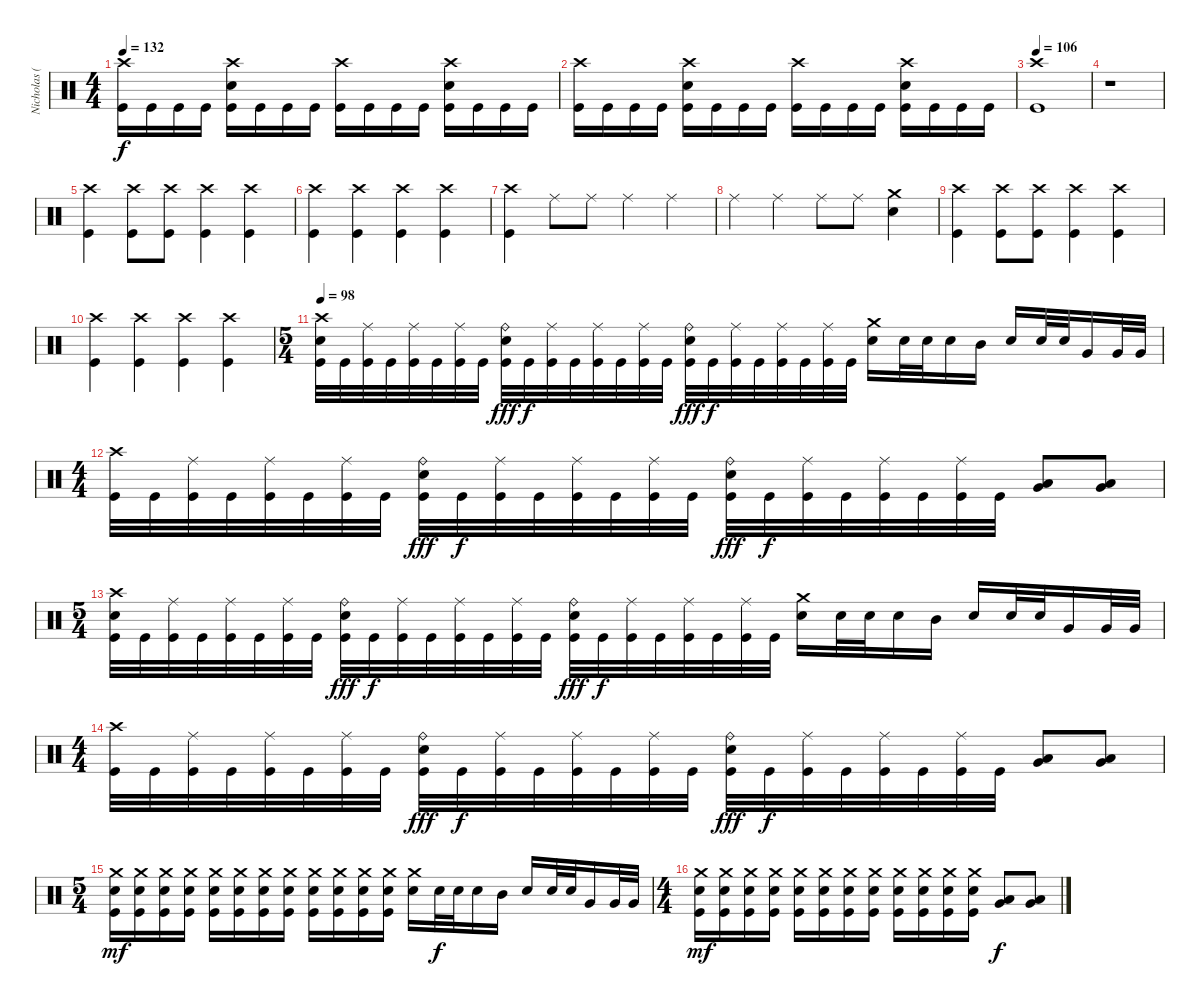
\track ("Nicholas (Drums)" "Nicholas (") {instrument percussion}
\staff {score}
\articulation defaults
\ts (4 4)
\tempo 132
\clef neutral
\ks c
("Crash high (hit)" "Kick (hit)").16{dy f} "Kick (hit)".16 "Kick (hit)".16 "Kick (hit)".16 ("Crash high (hit)" "Electric Snare (hit)" "Kick (hit)").16 "Kick (hit)".16 "Kick (hit)".16 "Kick (hit)".16 ("Crash high (hit)" "Kick (hit)").16 "Kick (hit)".16 "Kick (hit)".16 "Kick (hit)".16 ("Crash high (hit)" "Electric Snare (hit)" "Kick (hit)").16 "Kick (hit)".16 "Kick (hit)".16 "Kick (hit)".16 |
("Crash high (hit)" "Kick (hit)").16 "Kick (hit)".16 "Kick (hit)".16 "Kick (hit)".16 ("Crash high (hit)" "Electric Snare (hit)" "Kick (hit)").16 "Kick (hit)".16 "Kick (hit)".16 "Kick (hit)".16 ("Crash high (hit)" "Kick (hit)").16 "Kick (hit)".16 "Kick (hit)".16 "Kick (hit)".16 ("Crash high (hit)" "Electric Snare (hit)" "Kick (hit)").16 "Kick (hit)".16 "Kick (hit)".16 "Kick (hit)".16 |
\tempo 106
("Crash high (hit)" "Kick (hit)").1 |
r.1 |
("Crash high (hit)" "Kick (hit)").4 ("Crash high (hit)" "Kick (hit)").8 ("Crash high (hit)" "Kick (hit)").8 ("Crash high (hit)" "Kick (hit)").4 ("Crash high (hit)" "Kick (hit)").4 |
("Crash high (hit)" "Kick (hit)").4 ("Crash high (hit)" "Kick (hit)").4 ("Crash high (hit)" "Kick (hit)").4 ("Crash high (hit)" "Kick (hit)").4 |
("Crash high (hit)" "Kick (hit)").4 "Ride (middle)".8 "Ride (middle)".8 "Ride (middle)".4 "Ride (middle)".4 |
"Ride (middle)".4 "Ride (middle)".4 "Ride (middle)".8 "Ride (middle)".8 ("Crash medium (hit)" "Electric Snare (hit)").4 |
("Crash high (hit)" "Kick (hit)").4 ("Crash high (hit)" "Kick (hit)").8 ("Crash high (hit)" "Kick (hit)").8 ("Crash high (hit)" "Kick (hit)").4 ("Crash high (hit)" "Kick (hit)").4 |
("Crash high (hit)" "Kick (hit)").4 ("Crash high (hit)" "Kick (hit)").4 ("Crash high (hit)" "Kick (hit)").4 ("Crash high (hit)" "Kick (hit)").4 |
\ts (5 4)
\tempo 98
("Crash high (hit)" "Electric Snare (hit)" "Kick (hit)").32 "Kick (hit)".32 ("Ride (middle)" "Kick (hit)").32 "Kick (hit)".32 ("Ride (middle)" "Kick (hit)").32 "Kick (hit)".32 ("Ride (middle)" "Kick (hit)").32 "Kick (hit)".32 ("Ride (bell)" "Electric Snare (hit)" "Kick (hit)").32{dy fff} "Kick (hit)".32{dy f} ("Ride (middle)" "Kick (hit)").32 "Kick (hit)".32 ("Ride (middle)" "Kick (hit)").32 "Kick (hit)".32 ("Ride (middle)" "Kick (hit)").32 "Kick (hit)".32 ("Ride (bell)" "Electric Snare (hit)" "Kick (hit)").32{dy fff} "Kick (hit)".32{dy f} ("Ride (middle)" "Kick (hit)").32 "Kick (hit)".32 ("Ride (middle)" "Kick (hit)").32 "Kick (hit)".32 ("Ride (middle)" "Kick (hit)").32 "Kick (hit)".32 ("Crash medium (hit)" "Electric Snare (hit)").16 "Electric Snare (hit)".32 "Electric Snare (hit)".32 "Electric Snare (hit)".16 "Mid Tom (hit)".16 "Electric Snare (hit)".16 "Electric Snare (hit)".32 "Electric Snare (hit)".32 "Very Low Tom (hit)".16 "Very Low Tom (hit)".32 "Very Low Tom (hit)".32 |
\ts (4 4)
("Crash high (hit)" "Kick (hit)").32 "Kick (hit)".32 ("Ride (middle)" "Kick (hit)").32 "Kick (hit)".32 ("Ride (middle)" "Kick (hit)").32 "Kick (hit)".32 ("Ride (middle)" "Kick (hit)").32 "Kick (hit)".32 ("Ride (bell)" "Electric Snare (hit)" "Kick (hit)").32{dy fff} "Kick (hit)".32{dy f} ("Ride (middle)" "Kick (hit)").32 "Kick (hit)".32 ("Ride (middle)" "Kick (hit)").32 "Kick (hit)".32 ("Ride (middle)" "Kick (hit)").32 "Kick (hit)".32 ("Ride (bell)" "Electric Snare (hit)" "Kick (hit)").32{dy fff} "Kick (hit)".32{dy f} ("Ride (middle)" "Kick (hit)").32 "Kick (hit)".32 ("Ride (middle)" "Kick (hit)").32 "Kick (hit)".32 ("Ride (middle)" "Kick (hit)").32 "Kick (hit)".32 ("Low Tom (hit)" "Very Low Tom (hit)").8{bu 60} ("Low Tom (hit)" "Very Low Tom (hit)").8{bu 60} |
\ts (5 4)
("Crash high (hit)" "Electric Snare (hit)" "Kick (hit)").32 "Kick (hit)".32 ("Ride (middle)" "Kick (hit)").32 "Kick (hit)".32 ("Ride (middle)" "Kick (hit)").32 "Kick (hit)".32 ("Ride (middle)" "Kick (hit)").32 "Kick (hit)".32 ("Ride (bell)" "Electric Snare (hit)" "Kick (hit)").32{dy fff} "Kick (hit)".32{dy f} ("Ride (middle)" "Kick (hit)").32 "Kick (hit)".32 ("Ride (middle)" "Kick (hit)").32 "Kick (hit)".32 ("Ride (middle)" "Kick (hit)").32 "Kick (hit)".32 ("Ride (bell)" "Electric Snare (hit)" "Kick (hit)").32{dy fff} "Kick (hit)".32{dy f} ("Ride (middle)" "Kick (hit)").32 "Kick (hit)".32 ("Ride (middle)" "Kick (hit)").32 "Kick (hit)".32 ("Ride (middle)" "Kick (hit)").32 "Kick (hit)".32 ("Crash medium (hit)" "Electric Snare (hit)").16 "Electric Snare (hit)".32 "Electric Snare (hit)".32 "Electric Snare (hit)".16 "Mid Tom (hit)".16 "Electric Snare (hit)".16 "Electric Snare (hit)".32 "Electric Snare (hit)".32 "Very Low Tom (hit)".16 "Very Low Tom (hit)".32 "Very Low Tom (hit)".32 |
\ts (4 4)
("Crash high (hit)" "Kick (hit)").32 "Kick (hit)".32 ("Ride (middle)" "Kick (hit)").32 "Kick (hit)".32 ("Ride (middle)" "Kick (hit)").32 "Kick (hit)".32 ("Ride (middle)" "Kick (hit)").32 "Kick (hit)".32 ("Ride (bell)" "Electric Snare (hit)" "Kick (hit)").32{dy fff} "Kick (hit)".32{dy f} ("Ride (middle)" "Kick (hit)").32 "Kick (hit)".32 ("Ride (middle)" "Kick (hit)").32 "Kick (hit)".32 ("Ride (middle)" "Kick (hit)").32 "Kick (hit)".32 ("Ride (bell)" "Electric Snare (hit)" "Kick (hit)").32{dy fff} "Kick (hit)".32{dy f} ("Ride (middle)" "Kick (hit)").32 "Kick (hit)".32 ("Ride (middle)" "Kick (hit)").32 "Kick (hit)".32 ("Ride (middle)" "Kick (hit)").32 "Kick (hit)".32 ("Low Tom (hit)" "Very Low Tom (hit)").8{bu 60} ("Low Tom (hit)" "Very Low Tom (hit)").8{bu 60} |
\ts (5 4)
("Crash medium (hit)" "Electric Snare (hit)" "Kick (hit)").16{dy mf} ("Crash medium (hit)" "Electric Snare (hit)" "Kick (hit)").16 ("Crash medium (hit)" "Electric Snare (hit)" "Kick (hit)").16 ("Crash medium (hit)" "Electric Snare (hit)" "Kick (hit)").16 ("Crash medium (hit)" "Electric Snare (hit)" "Kick (hit)").16 ("Crash medium (hit)" "Electric Snare (hit)" "Kick (hit)").16 ("Crash medium (hit)" "Electric Snare (hit)" "Kick (hit)").16 ("Crash medium (hit)" "Electric Snare (hit)" "Kick (hit)").16 ("Crash medium (hit)" "Electric Snare (hit)" "Kick (hit)").16 ("Crash medium (hit)" "Electric Snare (hit)" "Kick (hit)").16 ("Crash medium (hit)" "Electric Snare (hit)" "Kick (hit)").16 ("Crash medium (hit)" "Electric Snare (hit)" "Kick (hit)").16 ("Crash medium (hit)" "Electric Snare (hit)").16 "Electric Snare (hit)".32{dy f} "Electric Snare (hit)".32 "Electric Snare (hit)".16 "Mid Tom (hit)".16 "Electric Snare (hit)".16 "Electric Snare (hit)".32 "Electric Snare (hit)".32 "Very Low Tom (hit)".16 "Very Low Tom (hit)".32 "Very Low Tom (hit)".32 |
\ts (4 4)
("Crash medium (hit)" "Electric Snare (hit)" "Kick (hit)").16{dy mf} ("Crash medium (hit)" "Electric Snare (hit)" "Kick (hit)").16 ("Crash medium (hit)" "Electric Snare (hit)" "Kick (hit)").16 ("Crash medium (hit)" "Electric Snare (hit)" "Kick (hit)").16 ("Crash medium (hit)" "Electric Snare (hit)" "Kick (hit)").16 ("Crash medium (hit)" "Electric Snare (hit)" "Kick (hit)").16 ("Crash medium (hit)" "Electric Snare (hit)" "Kick (hit)").16 ("Crash medium (hit)" "Electric Snare (hit)" "Kick (hit)").16 ("Crash medium (hit)" "Electric Snare (hit)" "Kick (hit)").16 ("Crash medium (hit)" "Electric Snare (hit)" "Kick (hit)").16 ("Crash medium (hit)" "Electric Snare (hit)" "Kick (hit)").16 ("Crash medium (hit)" "Electric Snare (hit)" "Kick (hit)").16 ("Low Tom (hit)" "Very Low Tom (hit)").8{bu 60 dy f} ("Low Tom (hit)" "Very Low Tom (hit)").8{bu 60}
